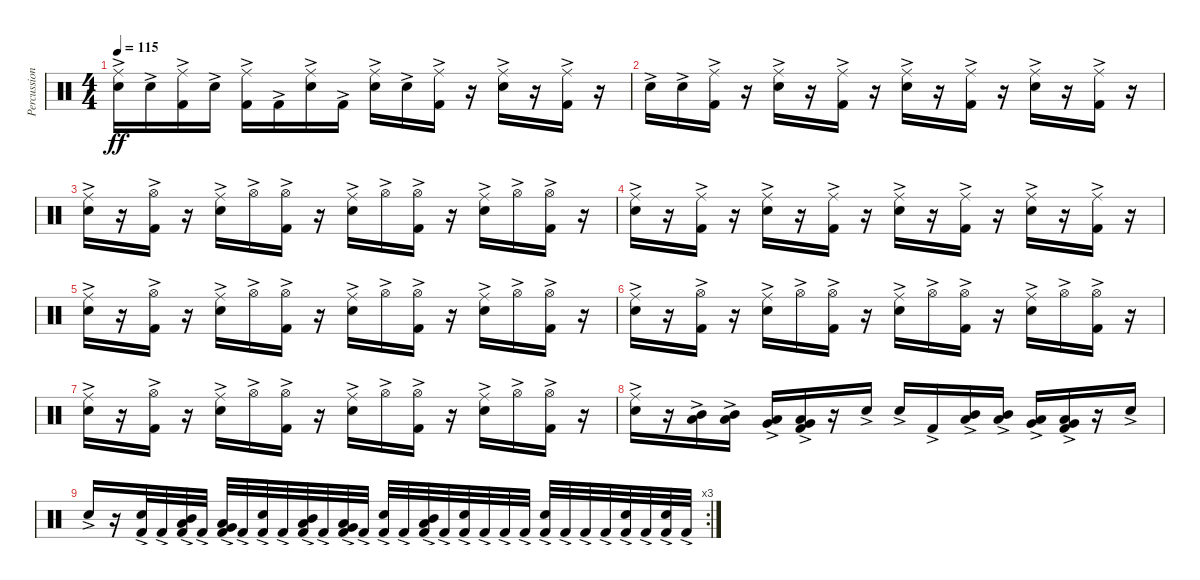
\track ("Percussion" "Percussion") {instrument percussion}
\staff {score}
\articulation defaults
\ts (4 4)
\tempo 115
\clef neutral
\ks c
("Ride (middle)"{ac} "Snare (hit) 2"{ac}).16{dy ff} "Snare (hit) 2"{ac}.16 ("Ride (middle)"{ac} "Kick (hit) 2"{ac}).16 "Snare (hit) 2"{ac}.16 ("Ride (middle)"{ac} "Kick (hit) 2"{ac}).16 "Kick (hit) 2"{ac}.16 ("Ride (middle)"{ac} "Snare (hit) 2"{ac}).16 "Kick (hit) 2"{ac}.16 ("Ride (middle)"{ac} "Snare (hit) 2"{ac}).16 "Snare (hit) 2"{ac}.16 ("Ride (middle)"{ac} "Kick (hit) 2"{ac}).16 r.16 ("Ride (middle)"{ac} "Snare (hit) 2"{ac}).16 r.16 ("Ride (middle)"{ac} "Kick (hit) 2"{ac}).16 r.16 |
"Snare (hit) 2"{ac}.16 "Snare (hit) 2"{ac}.16 ("Ride (middle)"{ac} "Kick (hit) 2"{ac}).16 r.16 ("Ride (middle)"{ac} "Snare (hit) 2"{ac}).16 r.16 ("Ride (middle)"{ac} "Kick (hit) 2"{ac}).16 r.16 ("Ride (middle)"{ac} "Snare (hit) 2"{ac}).16 r.16 ("Ride (middle)"{ac} "Kick (hit) 2"{ac}).16 r.16 ("Ride (middle)"{ac} "Snare (hit) 2"{ac}).16 r.16 ("Ride (middle)"{ac} "Kick (hit) 2"{ac}).16 r.16 |
("Ride (middle)"{ac} "Snare (hit) 2"{ac}).16 r.16 ("Hi-Hat (open)"{ac} "Kick (hit) 2"{ac}).16 r.16 ("Ride (middle)"{ac} "Snare (hit) 2"{ac}).16 "Hi-Hat (open)"{ac}.16 ("Hi-Hat (open)"{ac} "Kick (hit) 2"{ac}).16 r.16 ("Ride (middle)"{ac} "Snare (hit) 2"{ac}).16 "Hi-Hat (open)"{ac}.16 ("Hi-Hat (open)"{ac} "Kick (hit) 2"{ac}).16 r.16 ("Ride (middle)"{ac} "Snare (hit) 2"{ac}).16 "Hi-Hat (open)"{ac}.16 ("Hi-Hat (open)"{ac} "Kick (hit) 2"{ac}).16 r.16 |
("Ride (middle)"{ac} "Snare (hit) 2"{ac}).16 r.16 ("Ride (middle)"{ac} "Kick (hit) 2"{ac}).16 r.16 ("Ride (middle)"{ac} "Snare (hit) 2"{ac}).16 r.16 ("Ride (middle)"{ac} "Kick (hit) 2"{ac}).16 r.16 ("Ride (middle)"{ac} "Snare (hit) 2"{ac}).16 r.16 ("Ride (middle)"{ac} "Kick (hit) 2"{ac}).16 r.16 ("Ride (middle)"{ac} "Snare (hit) 2"{ac}).16 r.16 ("Ride (middle)"{ac} "Kick (hit) 2"{ac}).16 r.16 |
("Ride (middle)"{ac} "Snare (hit) 2"{ac}).16 r.16 ("Hi-Hat (open)"{ac} "Kick (hit) 2"{ac}).16 r.16 ("Ride (middle)"{ac} "Snare (hit) 2"{ac}).16 "Hi-Hat (open)"{ac}.16 ("Hi-Hat (open)"{ac} "Kick (hit) 2"{ac}).16 r.16 ("Ride (middle)"{ac} "Snare (hit) 2"{ac}).16 "Hi-Hat (open)"{ac}.16 ("Hi-Hat (open)"{ac} "Kick (hit) 2"{ac}).16 r.16 ("Ride (middle)"{ac} "Snare (hit) 2"{ac}).16 "Hi-Hat (open)"{ac}.16 ("Hi-Hat (open)"{ac} "Kick (hit) 2"{ac}).16 r.16 |
("Ride (middle)"{ac} "Snare (hit) 2"{ac}).16 r.16 ("Hi-Hat (open)"{ac} "Kick (hit) 2"{ac}).16 r.16 ("Ride (middle)"{ac} "Snare (hit) 2"{ac}).16 "Hi-Hat (open)"{ac}.16 ("Hi-Hat (open)"{ac} "Kick (hit) 2"{ac}).16 r.16 ("Ride (middle)"{ac} "Snare (hit) 2"{ac}).16 "Hi-Hat (open)"{ac}.16 ("Hi-Hat (open)"{ac} "Kick (hit) 2"{ac}).16 r.16 ("Ride (middle)"{ac} "Snare (hit) 2"{ac}).16 "Hi-Hat (open)"{ac}.16 ("Hi-Hat (open)"{ac} "Kick (hit) 2"{ac}).16 r.16 |
("Ride (middle)"{ac} "Snare (hit) 2"{ac}).16 r.16 ("Hi-Hat (open)"{ac} "Kick (hit) 2"{ac}).16 r.16 ("Ride (middle)"{ac} "Snare (hit) 2"{ac}).16 "Hi-Hat (open)"{ac}.16 ("Hi-Hat (open)"{ac} "Kick (hit) 2"{ac}).16 r.16 ("Ride (middle)"{ac} "Snare (hit) 2"{ac}).16 "Hi-Hat (open)"{ac}.16 ("Hi-Hat (open)"{ac} "Kick (hit) 2"{ac}).16 r.16 ("Ride (middle)"{ac} "Snare (hit) 2"{ac}).16 "Hi-Hat (open)"{ac}.16 ("Hi-Hat (open)"{ac} "Kick (hit) 2"{ac}).16 r.16 |
("Ride (middle)"{ac} "Snare (hit) 2"{ac}).16 r.16 ("Mid Tom (hit)"{ac} "Low Tom (hit)"{ac}).16 ("Mid Tom (hit)"{ac} "Low Tom (hit)"{ac}).16 ("Low Floor Tom (hit)"{ac} "Very Low Tom (hit)"{ac}).16 ("Low Floor Tom (hit)"{ac} "Very Low Tom (hit)"{ac} "Kick (hit) 2"{ac}).16 r.16 "Snare (hit) 2"{ac}.16 "Snare (hit) 2"{ac}.16 "Kick (hit) 2"{ac}.16 ("Mid Tom (hit)"{ac} "Low Tom (hit)"{ac}).16 ("Mid Tom (hit)"{ac} "Low Tom (hit)"{ac}).16 ("Low Floor Tom (hit)"{ac} "Very Low Tom (hit)"{ac}).16 ("Low Floor Tom (hit)"{ac} "Very Low Tom (hit)"{ac} "Kick (hit) 2"{ac}).16 r.16 "Snare (hit) 2"{ac}.16 |
\rc 3 "Snare (hit) 2"{ac}.16
r.16 ("Snare (hit) 2"{ac} "Kick (hit) 2"{ac}).32 "Kick (hit) 2"{ac}.32 ("Low Tom (hit)"{ac} "Mid Tom (hit)"{ac} "Kick (hit) 2"{ac}).32 "Kick (hit) 2"{ac}.32 ("Very Low Tom (hit)"{ac} "Low Tom (hit)"{ac} "Kick (hit) 2"{ac}).32 "Kick (hit) 2"{ac}.32 ("Snare (hit) 2"{ac} "Kick (hit) 2"{ac}).32 "Kick (hit) 2"{ac}.32 ("Low Tom (hit)"{ac} "Mid Tom (hit)"{ac} "Kick (hit) 2"{ac}).32 "Kick (hit) 2"{ac}.32 ("Very Low Tom (hit)"{ac} "Low Tom (hit)"{ac} "Kick (hit) 2"{ac}).32 "Kick (hit) 2"{ac}.32 ("Snare (hit) 2"{ac} "Kick (hit) 2"{ac}).32 "Kick (hit) 2"{ac}.32 ("Low Tom (hit)"{ac} "Mid Tom (hit)"{ac} "Kick (hit) 2"{ac}).32 "Kick (hit) 2"{ac}.32 ("Snare (hit) 2"{ac} "Kick (hit) 2"{ac}).32 "Kick (hit) 2"{ac}.32 "Kick (hit) 2"{ac}.32 "Kick (hit) 2"{ac}.32 ("Snare (hit) 2"{ac} "Kick (hit) 2"{ac}).32 "Kick (hit) 2"{ac}.32 "Kick (hit) 2"{ac}.32 "Kick (hit) 2"{ac}.32 ("Snare (hit) 2"{ac} "Kick (hit) 2"{ac}).32 "Kick (hit) 2"{ac}.32 ("Snare (hit) 2"{ac} "Kick (hit) 2"{ac}).32 "Kick (hit) 2"{ac}.32
